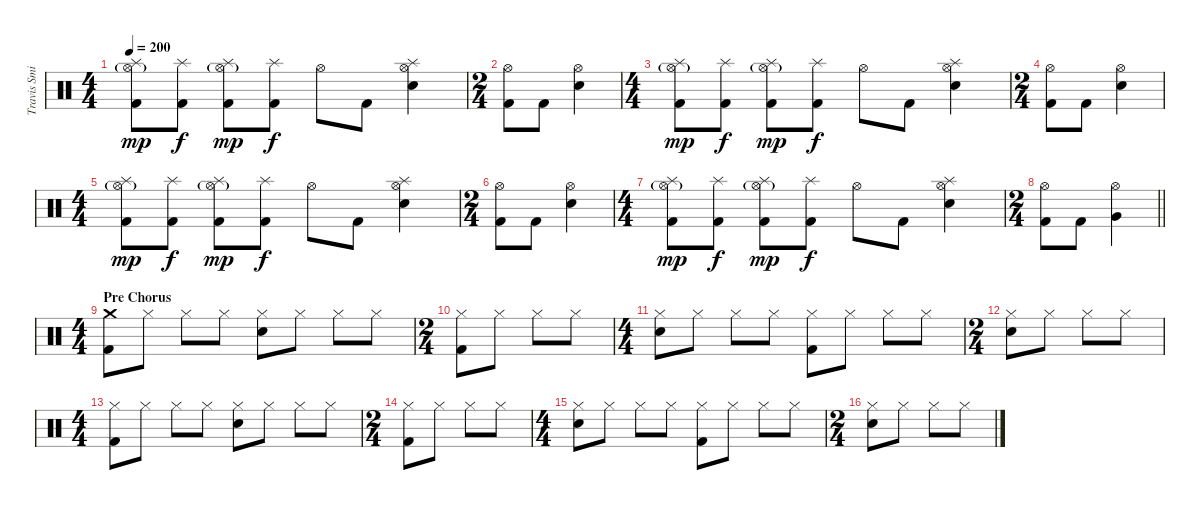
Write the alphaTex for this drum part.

\track ("Travis Smith" "Travis Smi") {instrument percussion}
\staff {score}
\articulation defaults
\ts (4 4)
\tempo 200
\clef neutral
\ks c
("Splash (hit)" "Hi-Hat (open)"{g} "Kick (hit) 2").8{dy mp} ("Splash (hit)" "Kick (hit) 2").8{dy f} ("Splash (hit)" "Hi-Hat (open)"{g} "Kick (hit) 2").8{dy mp} ("Splash (hit)" "Kick (hit) 2").8{dy f} "Hi-Hat (open)".8 "Kick (hit) 2".8 ("Splash (hit)" "Hi-Hat (open)" "Electric Snare (hit)").4 |
\ts (2 4)
("Hi-Hat (open)" "Kick (hit) 2").8 "Kick (hit) 2".8 ("Hi-Hat (open)" "Electric Snare (hit)").4 |
\ts (4 4)
("Splash (hit)" "Hi-Hat (open)"{g} "Kick (hit) 2").8{dy mp} ("Splash (hit)" "Kick (hit) 2").8{dy f} ("Splash (hit)" "Hi-Hat (open)"{g} "Kick (hit) 2").8{dy mp} ("Splash (hit)" "Kick (hit) 2").8{dy f} "Hi-Hat (open)".8 "Kick (hit) 2".8 ("Splash (hit)" "Hi-Hat (open)" "Electric Snare (hit)").4 |
\ts (2 4)
("Hi-Hat (open)" "Kick (hit) 2").8 "Kick (hit) 2".8 ("Hi-Hat (open)" "Electric Snare (hit)").4 |
\ts (4 4)
("Splash (hit)" "Hi-Hat (open)"{g} "Kick (hit) 2").8{dy mp} ("Splash (hit)" "Kick (hit) 2").8{dy f} ("Splash (hit)" "Hi-Hat (open)"{g} "Kick (hit) 2").8{dy mp} ("Splash (hit)" "Kick (hit) 2").8{dy f} "Hi-Hat (open)".8 "Kick (hit) 2".8 ("Splash (hit)" "Hi-Hat (open)" "Electric Snare (hit)").4 |
\ts (2 4)
("Hi-Hat (open)" "Kick (hit) 2").8 "Kick (hit) 2".8 ("Hi-Hat (open)" "Electric Snare (hit)").4 |
\ts (4 4)
("Splash (hit)" "Hi-Hat (open)"{g} "Kick (hit) 2").8{dy mp} ("Splash (hit)" "Kick (hit) 2").8{dy f} ("Splash (hit)" "Hi-Hat (open)"{g} "Kick (hit) 2").8{dy mp} ("Splash (hit)" "Kick (hit) 2").8{dy f} "Hi-Hat (open)".8 "Kick (hit) 2".8 ("Splash (hit)" "Hi-Hat (open)" "Electric Snare (hit)").4 |
\ts (2 4)
\barLineRight lightlight
("Hi-Hat (open)" "Kick (hit) 2").8 "Kick (hit) 2".8 ("Hi-Hat (open)" "Very Low Tom (hit)").4 |
\ts (4 4)
\section ("" "Pre Chorus")
("Crash medium (hit)" "Kick (hit) 2").8 "Hi-Hat (closed)".8 "Hi-Hat (closed)".8 "Hi-Hat (closed)".8 ("Hi-Hat (closed)" "Electric Snare (hit)").8 "Hi-Hat (closed)".8 "Hi-Hat (closed)".8 "Hi-Hat (closed)".8 |
\ts (2 4)
("Hi-Hat (closed)" "Kick (hit) 2").8 "Hi-Hat (closed)".8 "Hi-Hat (closed)".8 "Hi-Hat (closed)".8 |
\ts (4 4)
("Hi-Hat (closed)" "Electric Snare (hit)").8 "Hi-Hat (closed)".8 "Hi-Hat (closed)".8 "Hi-Hat (closed)".8 ("Hi-Hat (closed)" "Kick (hit) 2").8 "Hi-Hat (closed)".8 "Hi-Hat (closed)".8 "Hi-Hat (closed)".8 |
\ts (2 4)
("Hi-Hat (closed)" "Electric Snare (hit)").8 "Hi-Hat (closed)".8 "Hi-Hat (closed)".8 "Hi-Hat (closed)".8 |
\ts (4 4)
("Hi-Hat (closed)" "Kick (hit) 2").8 "Hi-Hat (closed)".8 "Hi-Hat (closed)".8 "Hi-Hat (closed)".8 ("Hi-Hat (closed)" "Electric Snare (hit)").8 "Hi-Hat (closed)".8 "Hi-Hat (closed)".8 "Hi-Hat (closed)".8 |
\ts (2 4)
("Hi-Hat (closed)" "Kick (hit) 2").8 "Hi-Hat (closed)".8 "Hi-Hat (closed)".8 "Hi-Hat (closed)".8 |
\ts (4 4)
("Hi-Hat (closed)" "Electric Snare (hit)").8 "Hi-Hat (closed)".8 "Hi-Hat (closed)".8 "Hi-Hat (closed)".8 ("Hi-Hat (closed)" "Kick (hit) 2").8 "Hi-Hat (closed)".8 "Hi-Hat (closed)".8 "Hi-Hat (closed)".8 |
\ts (2 4)
("Hi-Hat (closed)" "Electric Snare (hit)").8 "Hi-Hat (closed)".8 "Hi-Hat (closed)".8 "Hi-Hat (closed)".8
